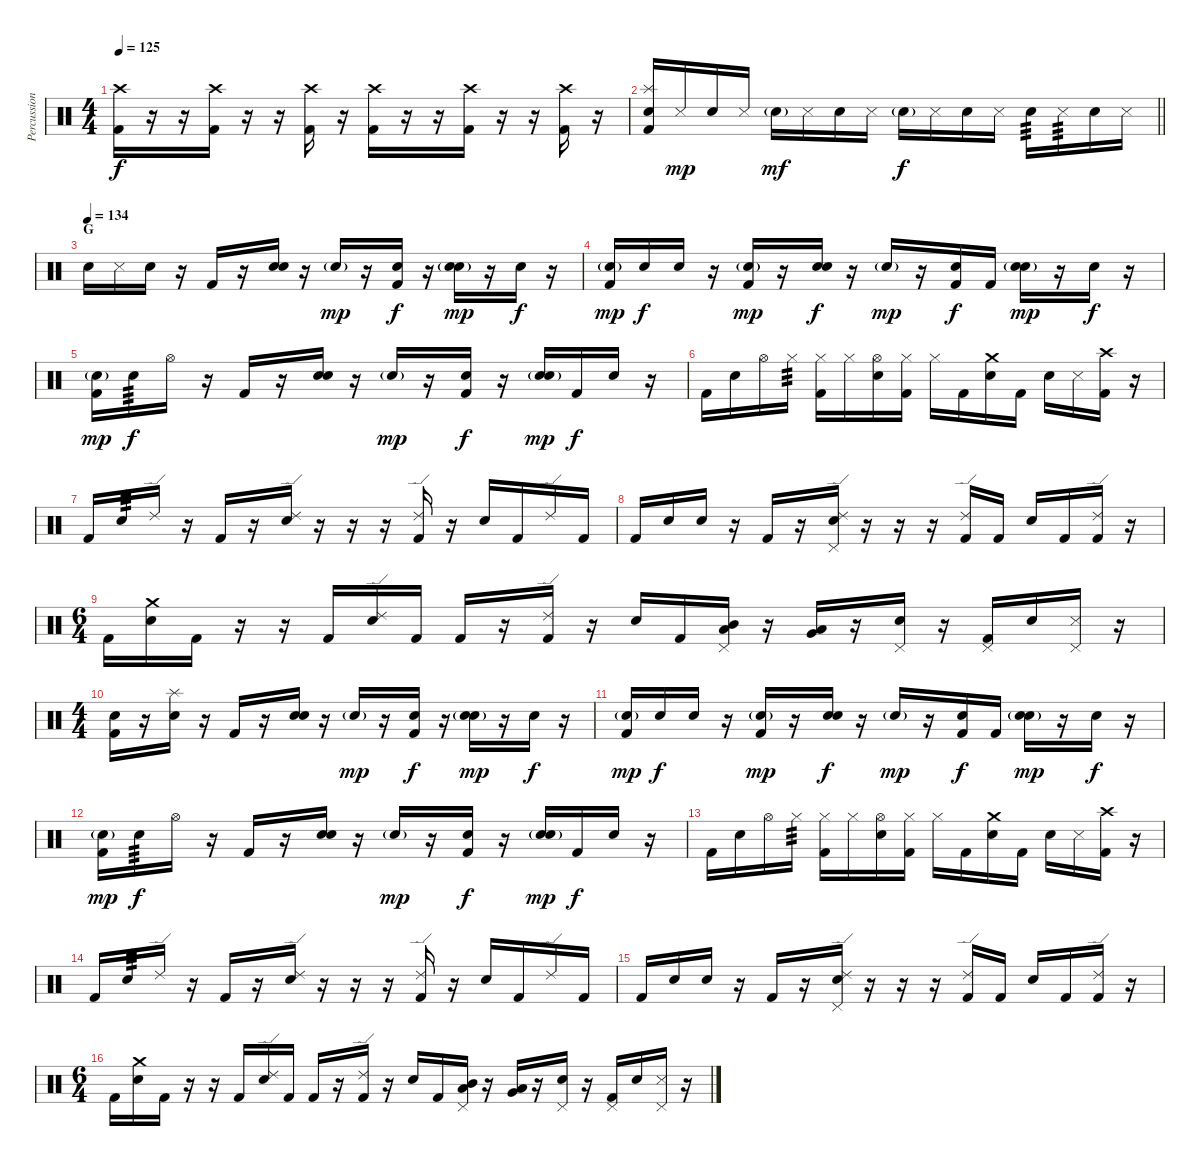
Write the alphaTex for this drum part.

\track ("Percussion" "Percussion") {instrument percussion}
\staff {score}
\articulation defaults
\ts (4 4)
\tempo 125
\clef neutral
\ks c
("Crash high (hit)" "Kick (hit) 2").16{dy f} r.16 r.16 ("Crash high (hit)" "Kick (hit) 2").16 r.16 r.16 ("Crash high (hit)" "Kick (hit) 2").16 r.16 ("Crash high (hit)" "Kick (hit) 2").16 r.16 r.16 ("Crash high (hit)" "Kick (hit) 2").16 r.16 r.16 ("Crash high (hit)" "Kick (hit) 2").16 r.16 |
\barLineRight lightlight
("Splash (hit)" "Snare (hit) 2" "Kick (hit) 2").16 "Metronome (hit)".16{dy mp} "Snare (hit) 2".16 "Metronome (hit)".16 "Snare (hit) 2"{g}.16{dy mf} "Metronome (hit)".16 "Snare (hit) 2".16 "Metronome (hit)".16 "Snare (hit) 2"{g}.16{dy f} "Metronome (hit)".16 "Snare (hit) 2".16 "Metronome (hit)".16 "Snare (hit) 2".16{tp 3} "Metronome (hit)".16{tp 3} "Snare (hit) 2".16 "Metronome (hit)".16 |
\section ("" "G")
\tempo (134)
"Snare (hit) 2".16 "Metronome (hit)".16 "Snare (hit)".16 r.16 "Kick (hit) 2".16 r.16 ("Snare (hit)" "Snare (hit) 2").16 r.16 "Snare (hit)"{g}.16{dy mp} r.16 ("Snare (hit)" "Kick (hit) 2").16{dy f} r.16 ("Snare (hit)"{g} "Snare (hit) 2").16{dy mp} r.16 "Snare (hit)".16{dy f} r.16 |
("Snare (hit)"{g} "Kick (hit) 2").16{dy mp} "Snare (hit) 2".16{dy f} "Snare (hit)".16 r.16 ("Snare (hit)"{g} "Kick (hit) 2").16{dy mp} r.16 ("Snare (hit)" "Snare (hit) 2").16{dy f} r.16 "Snare (hit)"{g}.16{dy mp} r.16 ("Snare (hit)" "Kick (hit) 2").16{dy f} "Kick (hit) 2".16 ("Snare (hit)"{g} "Snare (hit) 2").16{dy mp} r.16 "Snare (hit)".16{dy f} r.16 |
("Snare (hit)"{g} "Kick (hit) 2").16{dy mp} "Snare (hit) 2".16{tp 3 dy f} "Hi-Hat (open)".16 r.16 "Kick (hit) 2".16 r.16 ("Snare (hit)" "Snare (hit) 2").16 r.16 "Snare (hit)"{g}.16{dy mp} r.16 ("Snare (hit)" "Kick (hit) 2").16{dy f} r.16 ("Snare (hit)"{g} "Snare (hit) 2").16{dy mp} "Kick (hit) 2".16{dy f} "Snare (hit)".16 r.16 |
"Kick (hit) 2".16 "Snare (hit) 2".16 "Hi-Hat (open)".16 "Hi-Hat (closed)".16{tp 3} ("Hi-Hat (closed)" "Kick (hit) 2").16 "Hi-Hat (closed)".16 ("Hi-Hat (open)" "Snare (hit) 2").16 ("Hi-Hat (closed)" "Kick (hit) 2").16 "Hi-Hat (closed)".16 "Kick (hit) 2".16 ("Crash medium (hit)" "Snare (hit) 2").16 "Kick (hit) 2".16 "Snare (hit) 2".16 "Metronome (hit)".16 ("Crash high (hit)" "Kick (hit) 2").16 r.16 |
"Kick (hit) 2".16 "Snare (hit) 2".16{tp 3} "Ride (edge) 2".16 r.16 "Kick (hit) 2".16 r.16 ("Ride (edge) 2" "Snare (hit) 2").16 r.16 r.16 r.16 ("Ride (edge) 2" "Kick (hit) 2").16 r.16 "Snare (hit) 2".16 "Kick (hit) 2".16 "Ride (edge) 2".16 "Kick (hit) 2".16 |
"Kick (hit) 2".16 "Snare (hit) 2".16 "Snare (hit)".16 r.16 "Kick (hit) 2".16 r.16 ("Ride (edge) 2" "Pedal Hi-Hat (hit)" "Snare (hit) 2").16 r.16 r.16 r.16 ("Ride (edge) 2" "Kick (hit) 2").16 "Kick (hit) 2".16 "Snare (hit) 2".16 "Kick (hit) 2".16 ("Ride (edge) 2" "Kick (hit) 2").16 r.16 |
\ts (6 4)
"Kick (hit) 2".16 ("Crash medium (hit)" "Snare (hit) 2").16 "Kick (hit) 2".16 r.16 r.16 "Kick (hit) 2".16 ("Ride (edge) 2" "Snare (hit) 2").16 "Kick (hit) 2".16 "Kick (hit) 2".16 r.16 ("Ride (edge) 2" "Kick (hit) 2").16 r.16 "Snare (hit) 2".16 "Kick (hit) 2".16 ("Pedal Hi-Hat (hit)" "Mid Tom (hit)" "Low Tom (hit)").16 r.16 ("Low Tom (hit)" "Very Low Tom (hit)").16 r.16 ("Pedal Hi-Hat (hit)" "Snare (hit) 2").16 r.16 ("Pedal Hi-Hat (hit)" "Kick (hit) 2").16 "Snare (hit) 2".16 ("Pedal Hi-Hat (hit)" "Metronome (hit)").16 r.16 |
\ts (4 4)
("Snare (hit)" "Kick (hit) 2").16 r.16 ("Splash (hit)" "Snare (hit) 2").16 r.16 "Kick (hit) 2".16 r.16 ("Snare (hit)" "Snare (hit) 2").16 r.16 "Snare (hit)"{g}.16{dy mp} r.16 ("Snare (hit)" "Kick (hit) 2").16{dy f} r.16 ("Snare (hit)"{g} "Snare (hit) 2").16{dy mp} r.16 "Snare (hit)".16{dy f} r.16 |
("Snare (hit)"{g} "Kick (hit) 2").16{dy mp} "Snare (hit) 2".16{dy f} "Snare (hit)".16 r.16 ("Snare (hit)"{g} "Kick (hit) 2").16{dy mp} r.16 ("Snare (hit)" "Snare (hit) 2").16{dy f} r.16 "Snare (hit)"{g}.16{dy mp} r.16 ("Snare (hit)" "Kick (hit) 2").16{dy f} "Kick (hit) 2".16 ("Snare (hit)"{g} "Snare (hit) 2").16{dy mp} r.16 "Snare (hit)".16{dy f} r.16 |
("Snare (hit)"{g} "Kick (hit) 2").16{dy mp} "Snare (hit) 2".16{tp 3 dy f} "Hi-Hat (open)".16 r.16 "Kick (hit) 2".16 r.16 ("Snare (hit)" "Snare (hit) 2").16 r.16 "Snare (hit)"{g}.16{dy mp} r.16 ("Snare (hit)" "Kick (hit) 2").16{dy f} r.16 ("Snare (hit)"{g} "Snare (hit) 2").16{dy mp} "Kick (hit) 2".16{dy f} "Snare (hit)".16 r.16 |
"Kick (hit) 2".16 "Snare (hit) 2".16 "Hi-Hat (open)".16 "Hi-Hat (closed)".16{tp 3} ("Hi-Hat (closed)" "Kick (hit) 2").16 "Hi-Hat (closed)".16 ("Hi-Hat (open)" "Snare (hit) 2").16 ("Hi-Hat (closed)" "Kick (hit) 2").16 "Hi-Hat (closed)".16 "Kick (hit) 2".16 ("Crash medium (hit)" "Snare (hit) 2").16 "Kick (hit) 2".16 "Snare (hit) 2".16 "Metronome (hit)".16 ("Crash high (hit)" "Kick (hit) 2").16 r.16 |
"Kick (hit) 2".16 "Snare (hit) 2".16{tp 3} "Ride (edge) 2".16 r.16 "Kick (hit) 2".16 r.16 ("Ride (edge) 2" "Snare (hit) 2").16 r.16 r.16 r.16 ("Ride (edge) 2" "Kick (hit) 2").16 r.16 "Snare (hit) 2".16 "Kick (hit) 2".16 "Ride (edge) 2".16 "Kick (hit) 2".16 |
"Kick (hit) 2".16 "Snare (hit) 2".16 "Snare (hit)".16 r.16 "Kick (hit) 2".16 r.16 ("Ride (edge) 2" "Pedal Hi-Hat (hit)" "Snare (hit) 2").16 r.16 r.16 r.16 ("Ride (edge) 2" "Kick (hit) 2").16 "Kick (hit) 2".16 "Snare (hit) 2".16 "Kick (hit) 2".16 ("Ride (edge) 2" "Kick (hit) 2").16 r.16 |
\ts (6 4)
"Kick (hit) 2".16 ("Crash medium (hit)" "Snare (hit) 2").16 "Kick (hit) 2".16 r.16 r.16 "Kick (hit) 2".16 ("Ride (edge) 2" "Snare (hit) 2").16 "Kick (hit) 2".16 "Kick (hit) 2".16 r.16 ("Ride (edge) 2" "Kick (hit) 2").16 r.16 "Snare (hit) 2".16 "Kick (hit) 2".16 ("Pedal Hi-Hat (hit)" "Mid Tom (hit)" "Low Tom (hit)").16 r.16 ("Low Tom (hit)" "Very Low Tom (hit)").16 r.16 ("Pedal Hi-Hat (hit)" "Snare (hit) 2").16 r.16 ("Pedal Hi-Hat (hit)" "Kick (hit) 2").16 "Snare (hit) 2".16 ("Pedal Hi-Hat (hit)" "Metronome (hit)").16 r.16
